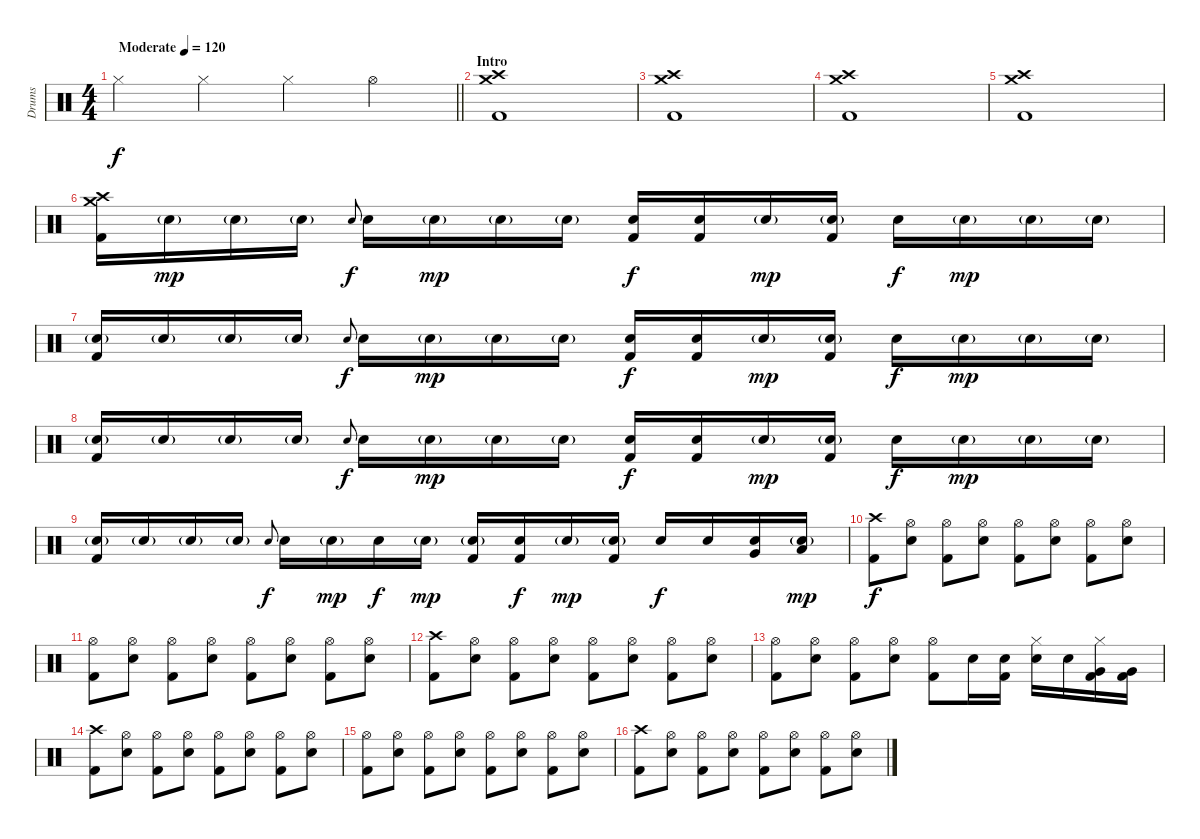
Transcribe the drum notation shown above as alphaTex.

\track ("Drums" "Drums") {instrument percussion}
\staff {score}
\articulation defaults
\ts (4 4)
\tempo (120 "Moderate")
\clef neutral
\barLineRight lightlight
\ks c "Hi-Hat (closed)".4{dy f} "Hi-Hat (closed)".4 "Hi-Hat (closed)".4 "Hi-Hat (open)".4
|
\section ("" "Intro")
("Crash high (hit)" "Crash medium (hit)" "Kick (hit) 2").1 |
("Crash high (hit)" "Crash medium (hit)" "Kick (hit) 2").1 |
("Crash high (hit)" "Crash medium (hit)" "Kick (hit) 2").1 |
("Crash high (hit)" "Crash medium (hit)" "Kick (hit) 2").1 |
("Crash high (hit)" "Crash medium (hit)" "Kick (hit) 2").16 "Electric Snare (hit)"{g}.16{dy mp} "Electric Snare (hit)"{g}.16 "Electric Snare (hit)"{g}.16 "Electric Snare (hit)".8{gr onbeat dy f} "Electric Snare (hit)".16 "Electric Snare (hit)"{g}.16{dy mp} "Electric Snare (hit)"{g}.16 "Electric Snare (hit)"{g}.16 ("Electric Snare (hit)" "Kick (hit) 2").16{dy f} ("Electric Snare (hit)" "Kick (hit) 2").16 "Electric Snare (hit)"{g}.16{dy mp} ("Electric Snare (hit)"{g} "Kick (hit) 2").16 "Electric Snare (hit)".16{dy f} "Electric Snare (hit)"{g}.16{dy mp} "Electric Snare (hit)"{g}.16 "Electric Snare (hit)"{g}.16 |
("Electric Snare (hit)"{g} "Kick (hit) 2").16 "Electric Snare (hit)"{g}.16 "Electric Snare (hit)"{g}.16 "Electric Snare (hit)"{g}.16 "Electric Snare (hit)".8{gr onbeat dy f} "Electric Snare (hit)".16 "Electric Snare (hit)"{g}.16{dy mp} "Electric Snare (hit)"{g}.16 "Electric Snare (hit)"{g}.16 ("Electric Snare (hit)" "Kick (hit) 2").16{dy f} ("Electric Snare (hit)" "Kick (hit) 2").16 "Electric Snare (hit)"{g}.16{dy mp} ("Electric Snare (hit)"{g} "Kick (hit) 2").16 "Electric Snare (hit)".16{dy f} "Electric Snare (hit)"{g}.16{dy mp} "Electric Snare (hit)"{g}.16 "Electric Snare (hit)"{g}.16 |
("Electric Snare (hit)"{g} "Kick (hit) 2").16 "Electric Snare (hit)"{g}.16 "Electric Snare (hit)"{g}.16 "Electric Snare (hit)"{g}.16 "Electric Snare (hit)".8{gr onbeat dy f} "Electric Snare (hit)".16 "Electric Snare (hit)"{g}.16{dy mp} "Electric Snare (hit)"{g}.16 "Electric Snare (hit)"{g}.16 ("Electric Snare (hit)" "Kick (hit) 2").16{dy f} ("Electric Snare (hit)" "Kick (hit) 2").16 "Electric Snare (hit)"{g}.16{dy mp} ("Electric Snare (hit)"{g} "Kick (hit) 2").16 "Electric Snare (hit)".16{dy f} "Electric Snare (hit)"{g}.16{dy mp} "Electric Snare (hit)"{g}.16 "Electric Snare (hit)"{g}.16 |
("Electric Snare (hit)"{g} "Kick (hit) 2").16 "Electric Snare (hit)"{g}.16 "Electric Snare (hit)"{g}.16 "Electric Snare (hit)"{g}.16 "Electric Snare (hit)".8{gr onbeat dy f} "Electric Snare (hit)".16 "Electric Snare (hit)"{g}.16{dy mp} "Electric Snare (hit)".16{dy f} "Electric Snare (hit)"{g}.16{dy mp} ("Electric Snare (hit)"{g} "Kick (hit) 2").16 ("Electric Snare (hit)" "Kick (hit) 2").16{dy f} "Electric Snare (hit)"{g}.16{dy mp} ("Electric Snare (hit)"{g} "Kick (hit) 2").16 "Electric Snare (hit)".16{dy f} "Electric Snare (hit)".16 ("Very Low Tom (hit)" "Electric Snare (hit)").16 ("Low Floor Tom (hit)" "Electric Snare (hit)"{g}).16{dy mp} |
("Crash high (hit)" "Kick (hit) 2").8{dy f} ("Hi-Hat (open)" "Electric Snare (hit)").8 ("Hi-Hat (open)" "Kick (hit) 2").8 ("Hi-Hat (open)" "Electric Snare (hit)").8 ("Hi-Hat (open)" "Kick (hit) 2").8 ("Hi-Hat (open)" "Electric Snare (hit)").8 ("Hi-Hat (open)" "Kick (hit) 2").8 ("Hi-Hat (open)" "Electric Snare (hit)").8 |
("Hi-Hat (open)" "Kick (hit) 2").8 ("Hi-Hat (open)" "Electric Snare (hit)").8 ("Hi-Hat (open)" "Kick (hit) 2").8 ("Hi-Hat (open)" "Electric Snare (hit)").8 ("Hi-Hat (open)" "Kick (hit) 2").8 ("Hi-Hat (open)" "Electric Snare (hit)").8 ("Hi-Hat (open)" "Kick (hit) 2").8 ("Hi-Hat (open)" "Electric Snare (hit)").8 |
("Crash high (hit)" "Kick (hit) 2").8 ("Hi-Hat (open)" "Electric Snare (hit)").8 ("Hi-Hat (open)" "Kick (hit) 2").8 ("Hi-Hat (open)" "Electric Snare (hit)").8 ("Hi-Hat (open)" "Kick (hit) 2").8 ("Hi-Hat (open)" "Electric Snare (hit)").8 ("Hi-Hat (open)" "Kick (hit) 2").8 ("Hi-Hat (open)" "Electric Snare (hit)").8 |
("Hi-Hat (open)" "Kick (hit) 2").8 ("Hi-Hat (open)" "Electric Snare (hit)").8 ("Hi-Hat (open)" "Kick (hit) 2").8 ("Hi-Hat (open)" "Electric Snare (hit)").8 ("Hi-Hat (open)" "Kick (hit) 2").8 "Electric Snare (hit)".16 ("Electric Snare (hit)" "Kick (hit) 2").16 ("Hi-Hat (closed)" "Electric Snare (hit)").16 "Electric Snare (hit)".16 ("Hi-Hat (closed)" "Very Low Tom (hit)" "Kick (hit) 2").16 ("Very Low Tom (hit)" "Kick (hit) 2").16 |
("Crash high (hit)" "Kick (hit) 2").8 ("Hi-Hat (open)" "Electric Snare (hit)").8 ("Hi-Hat (open)" "Kick (hit) 2").8 ("Hi-Hat (open)" "Electric Snare (hit)").8 ("Hi-Hat (open)" "Kick (hit) 2").8 ("Hi-Hat (open)" "Electric Snare (hit)").8 ("Hi-Hat (open)" "Kick (hit) 2").8 ("Hi-Hat (open)" "Electric Snare (hit)").8 |
("Hi-Hat (open)" "Kick (hit) 2").8 ("Hi-Hat (open)" "Electric Snare (hit)").8 ("Hi-Hat (open)" "Kick (hit) 2").8 ("Hi-Hat (open)" "Electric Snare (hit)").8 ("Hi-Hat (open)" "Kick (hit) 2").8 ("Hi-Hat (open)" "Electric Snare (hit)").8 ("Hi-Hat (open)" "Kick (hit) 2").8 ("Hi-Hat (open)" "Electric Snare (hit)").8 |
("Crash high (hit)" "Kick (hit) 2").8 ("Hi-Hat (open)" "Electric Snare (hit)").8 ("Hi-Hat (open)" "Kick (hit) 2").8 ("Hi-Hat (open)" "Electric Snare (hit)").8 ("Hi-Hat (open)" "Kick (hit) 2").8 ("Hi-Hat (open)" "Electric Snare (hit)").8 ("Hi-Hat (open)" "Kick (hit) 2").8 ("Hi-Hat (open)" "Electric Snare (hit)").8
